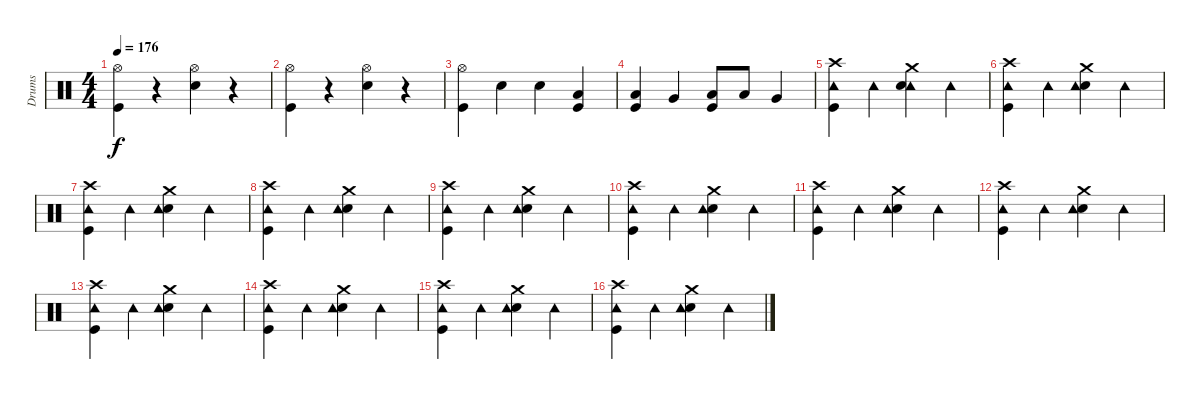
\track ("Drums" "Drums") {instrument percussion}
\staff {score}
\articulation defaults
\ts (4 4)
\tempo 176
\clef neutral
\ks c
("Hi-Hat (open)" "Kick (hit)").4{dy f} r.4 ("Hi-Hat (open)" "Electric Snare (hit)").4 r.4 |
("Hi-Hat (open)" "Kick (hit)").4 r.4 ("Hi-Hat (open)" "Electric Snare (hit)").4 r.4 |
("Hi-Hat (open)" "Kick (hit)").4 "Snare (hit) 2".4 "Snare (hit) 2".4 ("Kick (hit)" "Low Tom (hit)").4 |
("Kick (hit)" "Low Tom (hit)").4 "Very Low Tom (hit)".4 ("Kick (hit)" "Low Floor Tom (hit)").8 "Low Floor Tom (hit)".8 "Very Low Tom (hit)".4 |
("Tambourine (hit)" "Crash high (hit)" "Kick (hit)").4 "Tambourine (hit)".4 ("Tambourine (hit)" "Crash medium (hit)" "Electric Snare (hit)").4 "Tambourine (hit)".4 |
("Crash high (hit)" "Kick (hit)" "Tambourine (hit)").4 "Tambourine (hit)".4 ("Crash medium (hit)" "Electric Snare (hit)" "Tambourine (hit)").4 "Tambourine (hit)".4 |
("Crash high (hit)" "Kick (hit)" "Tambourine (hit)").4 "Tambourine (hit)".4 ("Crash medium (hit)" "Electric Snare (hit)" "Tambourine (hit)").4 "Tambourine (hit)".4 |
("Crash high (hit)" "Kick (hit)" "Tambourine (hit)").4 "Tambourine (hit)".4 ("Crash medium (hit)" "Electric Snare (hit)" "Tambourine (hit)").4 "Tambourine (hit)".4 |
("Crash high (hit)" "Kick (hit)" "Tambourine (hit)").4 "Tambourine (hit)".4 ("Crash medium (hit)" "Electric Snare (hit)" "Tambourine (hit)").4 "Tambourine (hit)".4 |
("Crash high (hit)" "Kick (hit)" "Tambourine (hit)").4 "Tambourine (hit)".4 ("Crash medium (hit)" "Electric Snare (hit)" "Tambourine (hit)").4 "Tambourine (hit)".4 |
("Crash high (hit)" "Kick (hit)" "Tambourine (hit)").4 "Tambourine (hit)".4 ("Crash medium (hit)" "Electric Snare (hit)" "Tambourine (hit)").4 "Tambourine (hit)".4 |
("Crash high (hit)" "Kick (hit)" "Tambourine (hit)").4 "Tambourine (hit)".4 ("Crash medium (hit)" "Electric Snare (hit)" "Tambourine (hit)").4 "Tambourine (hit)".4 |
("Crash high (hit)" "Kick (hit)" "Tambourine (hit)").4 "Tambourine (hit)".4 ("Crash medium (hit)" "Electric Snare (hit)" "Tambourine (hit)").4 "Tambourine (hit)".4 |
("Crash high (hit)" "Kick (hit)" "Tambourine (hit)").4 "Tambourine (hit)".4 ("Crash medium (hit)" "Electric Snare (hit)" "Tambourine (hit)").4 "Tambourine (hit)".4 |
("Crash high (hit)" "Kick (hit)" "Tambourine (hit)").4 "Tambourine (hit)".4 ("Crash medium (hit)" "Electric Snare (hit)" "Tambourine (hit)").4 "Tambourine (hit)".4 |
("Crash high (hit)" "Kick (hit)" "Tambourine (hit)").4 "Tambourine (hit)".4 ("Crash medium (hit)" "Electric Snare (hit)" "Tambourine (hit)").4 "Tambourine (hit)".4
